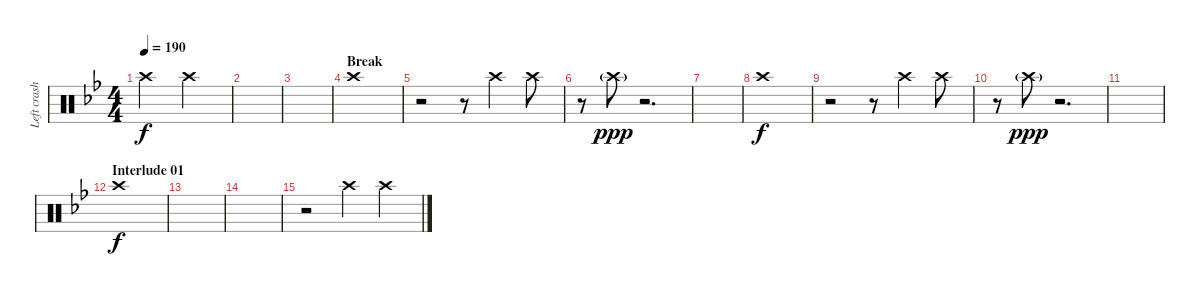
\track ("Left crash" "Left crash") {instrument percussion}
\staff {score}
\articulation defaults
\ts (4 4)
\tempo 190
\clef neutral
\ks bb "Crash high (hit)".2{dy f} "Crash high (hit)".2
|
|
|
\section ("" "Break")
"Crash high (hit)".1 |
r.2 r.8 "Crash high (hit)".4 "Crash high (hit)".8 |
r.8 "Crash high (hit)"{g}.8{dy ppp} r.2{d} |
|
"Crash high (hit)".1{dy f} |
r.2 r.8 "Crash high (hit)".4 "Crash high (hit)".8 |
r.8 "Crash high (hit)"{g}.8{dy ppp} r.2{d} |
|
\section ("" "Interlude 01")
"Crash high (hit)".1{dy f} |
|
|
r.2 "Crash high (hit)".4 "Crash high (hit)".4
